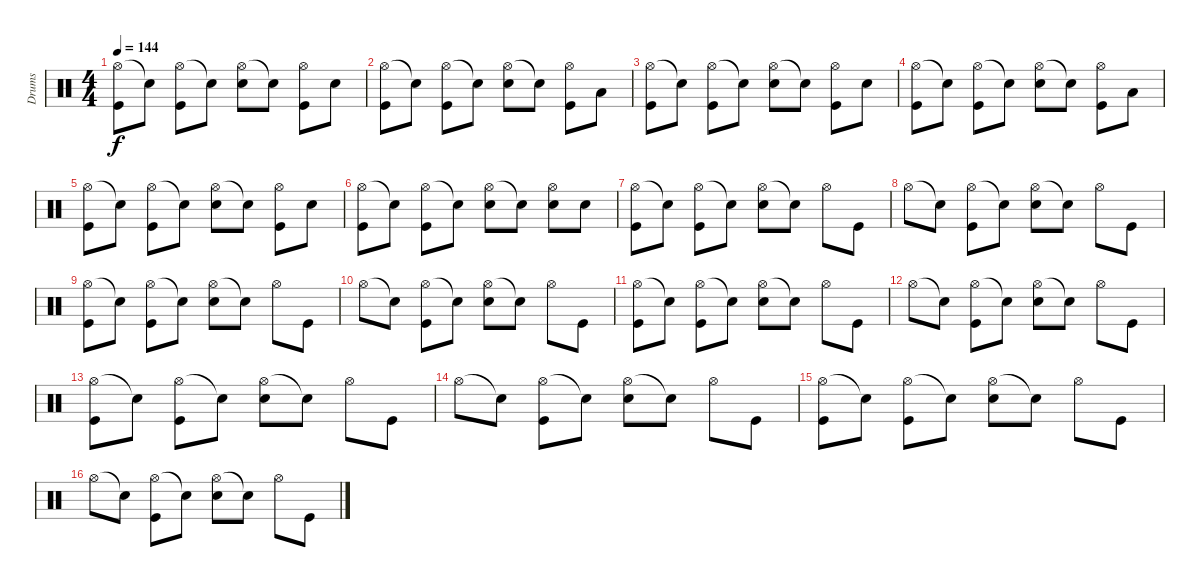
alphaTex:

\track ("Drums               " "Drums     ") {instrument percussion}
\staff {score}
\articulation defaults
\ts (4 4)
\tempo 144
\clef neutral
\ks c
("Hi-Hat (open)" "Kick (hit)").8{dy f} "Snare (hit)"{t}.8 ("Hi-Hat (open)" "Kick (hit)").8 "Snare (hit)"{t}.8 ("Hi-Hat (open)" "Snare (hit) 2").8 "Snare (hit)"{t}.8 ("Hi-Hat (open)" "Kick (hit)").8 "Snare (hit) 2".8 |
("Hi-Hat (open)" "Kick (hit)").8 "Snare (hit)"{t}.8 ("Hi-Hat (open)" "Kick (hit)").8 "Snare (hit)"{t}.8 ("Hi-Hat (open)" "Snare (hit) 2").8 "Snare (hit)"{t}.8 ("Hi-Hat (open)" "Kick (hit)").8 "Low Tom (hit)".8 |
("Hi-Hat (open)" "Kick (hit)").8 "Snare (hit)"{t}.8 ("Hi-Hat (open)" "Kick (hit)").8 "Snare (hit)"{t}.8 ("Hi-Hat (open)" "Snare (hit) 2").8 "Snare (hit)"{t}.8 ("Hi-Hat (open)" "Kick (hit)").8 "Snare (hit) 2".8 |
("Hi-Hat (open)" "Kick (hit)").8 "Snare (hit)"{t}.8 ("Hi-Hat (open)" "Kick (hit)").8 "Snare (hit)"{t}.8 ("Hi-Hat (open)" "Snare (hit) 2").8 "Snare (hit)"{t}.8 ("Hi-Hat (open)" "Kick (hit)").8 "Low Tom (hit)".8 |
("Hi-Hat (open)" "Kick (hit)").8 "Snare (hit)"{t}.8 ("Hi-Hat (open)" "Kick (hit)").8 "Snare (hit)"{t}.8 ("Hi-Hat (open)" "Snare (hit) 2").8 "Snare (hit)"{t}.8 ("Hi-Hat (open)" "Kick (hit)").8 "Snare (hit) 2".8 |
("Hi-Hat (open)" "Kick (hit)").8 "Snare (hit)"{t}.8 ("Hi-Hat (open)" "Kick (hit)").8 "Snare (hit)"{t}.8 ("Hi-Hat (open)" "Snare (hit) 2").8 "Snare (hit)"{t}.8 ("Hi-Hat (open)" "Snare (hit) 2").8 "Snare (hit) 2".8 |
("Hi-Hat (open)" "Kick (hit)").8 "Snare (hit)"{t}.8 ("Hi-Hat (open)" "Kick (hit)").8 "Snare (hit)"{t}.8 ("Hi-Hat (open)" "Snare (hit) 2").8 "Snare (hit)"{t}.8 "Hi-Hat (open)".8 "Kick (hit)".8 |
"Hi-Hat (open)".8 "Snare (hit)"{t}.8 ("Hi-Hat (open)" "Kick (hit)").8 "Snare (hit)"{t}.8 ("Hi-Hat (open)" "Snare (hit) 2").8 "Snare (hit)"{t}.8 "Hi-Hat (open)".8 "Kick (hit)".8 |
("Hi-Hat (open)" "Kick (hit)").8 "Snare (hit)"{t}.8 ("Hi-Hat (open)" "Kick (hit)").8 "Snare (hit)"{t}.8 ("Hi-Hat (open)" "Snare (hit) 2").8 "Snare (hit)"{t}.8 "Hi-Hat (open)".8 "Kick (hit)".8 |
"Hi-Hat (open)".8 "Snare (hit)"{t}.8 ("Hi-Hat (open)" "Kick (hit)").8 "Snare (hit)"{t}.8 ("Hi-Hat (open)" "Snare (hit) 2").8 "Snare (hit)"{t}.8 "Hi-Hat (open)".8 "Kick (hit)".8 |
("Hi-Hat (open)" "Kick (hit)").8 "Snare (hit)"{t}.8 ("Hi-Hat (open)" "Kick (hit)").8 "Snare (hit)"{t}.8 ("Hi-Hat (open)" "Snare (hit) 2").8 "Snare (hit)"{t}.8 "Hi-Hat (open)".8 "Kick (hit)".8 |
"Hi-Hat (open)".8 "Snare (hit)"{t}.8 ("Hi-Hat (open)" "Kick (hit)").8 "Snare (hit)"{t}.8 ("Hi-Hat (open)" "Snare (hit) 2").8 "Snare (hit)"{t}.8 "Hi-Hat (open)".8 "Kick (hit)".8 |
("Hi-Hat (open)" "Kick (hit)").8 "Snare (hit)"{t}.8 ("Hi-Hat (open)" "Kick (hit)").8 "Snare (hit)"{t}.8 ("Hi-Hat (open)" "Snare (hit) 2").8 "Snare (hit)"{t}.8 "Hi-Hat (open)".8 "Kick (hit)".8 |
"Hi-Hat (open)".8 "Snare (hit)"{t}.8 ("Hi-Hat (open)" "Kick (hit)").8 "Snare (hit)"{t}.8 ("Hi-Hat (open)" "Snare (hit) 2").8 "Snare (hit)"{t}.8 "Hi-Hat (open)".8 "Kick (hit)".8 |
("Hi-Hat (open)" "Kick (hit)").8 "Snare (hit)"{t}.8 ("Hi-Hat (open)" "Kick (hit)").8 "Snare (hit)"{t}.8 ("Hi-Hat (open)" "Snare (hit) 2").8 "Snare (hit)"{t}.8 "Hi-Hat (open)".8 "Kick (hit)".8 |
"Hi-Hat (open)".8 "Snare (hit)"{t}.8 ("Hi-Hat (open)" "Kick (hit)").8 "Snare (hit)"{t}.8 ("Hi-Hat (open)" "Snare (hit) 2").8 "Snare (hit)"{t}.8 "Hi-Hat (open)".8 "Kick (hit)".8
